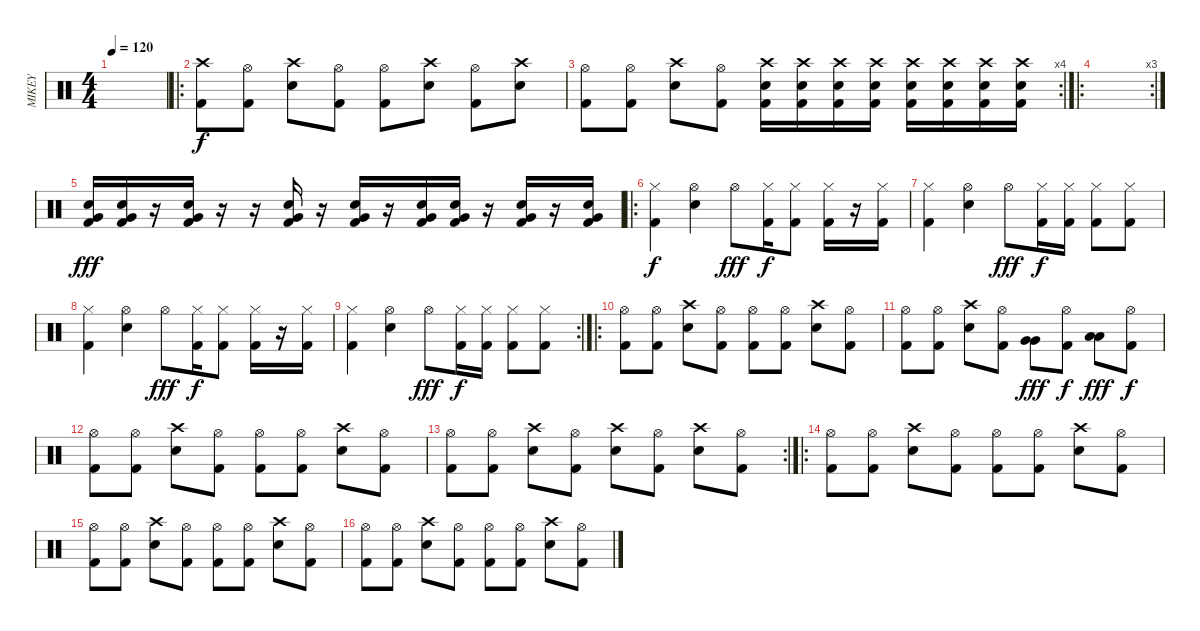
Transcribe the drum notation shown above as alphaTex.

\track ("MIKEY" "MIKEY") {instrument percussion}
\staff {score}
\articulation defaults
\ts (4 4)
\tempo 120
\clef neutral
\ks c
|
\ro
("Crash high (hit)" "Kick (hit) 2").8{dy f} ("Hi-Hat (open)" "Kick (hit) 2").8 ("Crash high (hit)" "Snare (hit) 2").8 ("Hi-Hat (open)" "Kick (hit) 2").8 ("Hi-Hat (open)" "Kick (hit) 2").8 ("Crash high (hit)" "Snare (hit) 2").8 ("Hi-Hat (open)" "Kick (hit) 2").8 ("Crash high (hit)" "Snare (hit) 2").8 |
\rc 4
("Hi-Hat (open)" "Kick (hit) 2").8 ("Hi-Hat (open)" "Kick (hit) 2").8 ("Crash high (hit)" "Snare (hit) 2").8 ("Hi-Hat (open)" "Kick (hit) 2").8 ("Crash high (hit)" "Kick (hit) 2" "Snare (hit) 2").16 ("Crash high (hit)" "Kick (hit) 2" "Snare (hit) 2").16 ("Crash high (hit)" "Kick (hit) 2" "Snare (hit) 2").16 ("Crash high (hit)" "Kick (hit) 2" "Snare (hit) 2").16 ("Crash high (hit)" "Kick (hit) 2" "Snare (hit) 2").16 ("Crash high (hit)" "Kick (hit) 2" "Snare (hit) 2").16 ("Crash high (hit)" "Kick (hit) 2" "Snare (hit) 2").16 ("Crash high (hit)" "Kick (hit) 2" "Snare (hit) 2").16 |
\ro
\rc 3
|
("Very Low Tom (hit)" "Snare (hit) 2" "Kick (hit) 2").16{dy fff} ("Very Low Tom (hit)" "Snare (hit) 2" "Kick (hit) 2").16 r.16 ("Very Low Tom (hit)" "Snare (hit) 2" "Kick (hit) 2").16 r.16 r.16 ("Very Low Tom (hit)" "Snare (hit) 2" "Kick (hit) 2").16 r.16 ("Very Low Tom (hit)" "Snare (hit) 2" "Kick (hit) 2").16 r.16 ("Very Low Tom (hit)" "Snare (hit) 2" "Kick (hit) 2").16 ("Very Low Tom (hit)" "Snare (hit) 2" "Kick (hit) 2").16 r.16 ("Very Low Tom (hit)" "Snare (hit) 2" "Kick (hit) 2").16 r.16 ("Very Low Tom (hit)" "Snare (hit) 2" "Kick (hit) 2").16 |
\ro
("Hi-Hat (closed)" "Kick (hit) 2").4{dy f} ("Hi-Hat (open)" "Electric Snare (hit)").4 "Hi-Hat (open)"{be (custom 0 1 20 1 40 0 60 0)}.8{dy fff} ("Hi-Hat (closed)" "Kick (hit) 2").16{dy f} ("Hi-Hat (closed)" "Kick (hit) 2").8 ("Hi-Hat (closed)" "Kick (hit) 2").16 r.16 ("Hi-Hat (closed)" "Kick (hit) 2").16 |
("Hi-Hat (closed)" "Kick (hit) 2").4 ("Hi-Hat (open)" "Electric Snare (hit)").4 "Hi-Hat (open)"{be (custom 0 1 20 1 40 0 60 0)}.8{dy fff} ("Hi-Hat (closed)" "Kick (hit) 2").16{dy f} ("Hi-Hat (closed)" "Kick (hit) 2").16 ("Hi-Hat (closed)" "Kick (hit) 2").8 ("Hi-Hat (closed)" "Kick (hit) 2").8 |
("Hi-Hat (closed)" "Kick (hit) 2").4 ("Hi-Hat (open)" "Electric Snare (hit)").4 "Hi-Hat (open)"{be (custom 0 1 20 1 40 0 60 0)}.8{dy fff} ("Hi-Hat (closed)" "Kick (hit) 2").16{dy f} ("Hi-Hat (closed)" "Kick (hit) 2").8 ("Hi-Hat (closed)" "Kick (hit) 2").16 r.16 ("Hi-Hat (closed)" "Kick (hit) 2").16 |
\rc 2
("Hi-Hat (closed)" "Kick (hit) 2").4 ("Hi-Hat (open)" "Electric Snare (hit)").4 "Hi-Hat (open)"{be (custom 0 1 20 1 40 0 60 0)}.8{dy fff} ("Hi-Hat (closed)" "Kick (hit) 2").16{dy f} ("Hi-Hat (closed)" "Kick (hit) 2").16 ("Hi-Hat (closed)" "Kick (hit) 2").8 ("Hi-Hat (closed)" "Kick (hit) 2").8 |
\ro
("Hi-Hat (open)" "Kick (hit) 2").8 ("Hi-Hat (open)" "Kick (hit) 2").8 ("Crash high (hit)" "Snare (hit) 2").8 ("Hi-Hat (open)" "Kick (hit) 2").8 ("Hi-Hat (open)" "Kick (hit) 2").8 ("Hi-Hat (open)" "Kick (hit) 2").8 ("Crash high (hit)" "Snare (hit) 2").8 ("Hi-Hat (open)" "Kick (hit) 2").8 |
("Hi-Hat (open)" "Kick (hit) 2").8 ("Hi-Hat (open)" "Kick (hit) 2").8 ("Crash high (hit)" "Snare (hit) 2").8 ("Hi-Hat (open)" "Kick (hit) 2").8 ("Very Low Tom (hit)" "Very Low Tom (hit)").8{dy fff} ("Hi-Hat (open)" "Kick (hit) 2").8{dy f} ("Low Floor Tom (hit)" "Low Floor Tom (hit)").8{dy fff} ("Hi-Hat (open)" "Kick (hit) 2").8{dy f} |
("Hi-Hat (open)" "Kick (hit) 2").8 ("Hi-Hat (open)" "Kick (hit) 2").8 ("Crash high (hit)" "Snare (hit) 2").8 ("Hi-Hat (open)" "Kick (hit) 2").8 ("Hi-Hat (open)" "Kick (hit) 2").8 ("Hi-Hat (open)" "Kick (hit) 2").8 ("Crash high (hit)" "Snare (hit) 2").8 ("Hi-Hat (open)" "Kick (hit) 2").8 |
\rc 2
("Hi-Hat (open)" "Kick (hit) 2").8 ("Hi-Hat (open)" "Kick (hit) 2").8 ("Crash high (hit)" "Snare (hit) 2").8 ("Hi-Hat (open)" "Kick (hit) 2").8 ("Crash high (hit)" "Snare (hit) 2").8 ("Hi-Hat (open)" "Kick (hit) 2").8 ("Crash high (hit)" "Snare (hit) 2").8 ("Hi-Hat (open)" "Kick (hit) 2").8 |
\ro
("Hi-Hat (open)" "Kick (hit) 2").8 ("Hi-Hat (open)" "Kick (hit) 2").8 ("Crash high (hit)" "Snare (hit) 2").8 ("Hi-Hat (open)" "Kick (hit) 2").8 ("Hi-Hat (open)" "Kick (hit) 2").8 ("Hi-Hat (open)" "Kick (hit) 2").8 ("Crash high (hit)" "Snare (hit) 2").8 ("Hi-Hat (open)" "Kick (hit) 2").8 |
("Hi-Hat (open)" "Kick (hit) 2").8 ("Hi-Hat (open)" "Kick (hit) 2").8 ("Crash high (hit)" "Snare (hit) 2").8 ("Hi-Hat (open)" "Kick (hit) 2").8 ("Hi-Hat (open)" "Kick (hit) 2").8 ("Hi-Hat (open)" "Kick (hit) 2").8 ("Crash high (hit)" "Snare (hit) 2").8 ("Hi-Hat (open)" "Kick (hit) 2").8 |
("Hi-Hat (open)" "Kick (hit) 2").8 ("Hi-Hat (open)" "Kick (hit) 2").8 ("Crash high (hit)" "Snare (hit) 2").8 ("Hi-Hat (open)" "Kick (hit) 2").8 ("Hi-Hat (open)" "Kick (hit) 2").8 ("Hi-Hat (open)" "Kick (hit) 2").8 ("Crash high (hit)" "Snare (hit) 2").8 ("Hi-Hat (open)" "Kick (hit) 2").8
